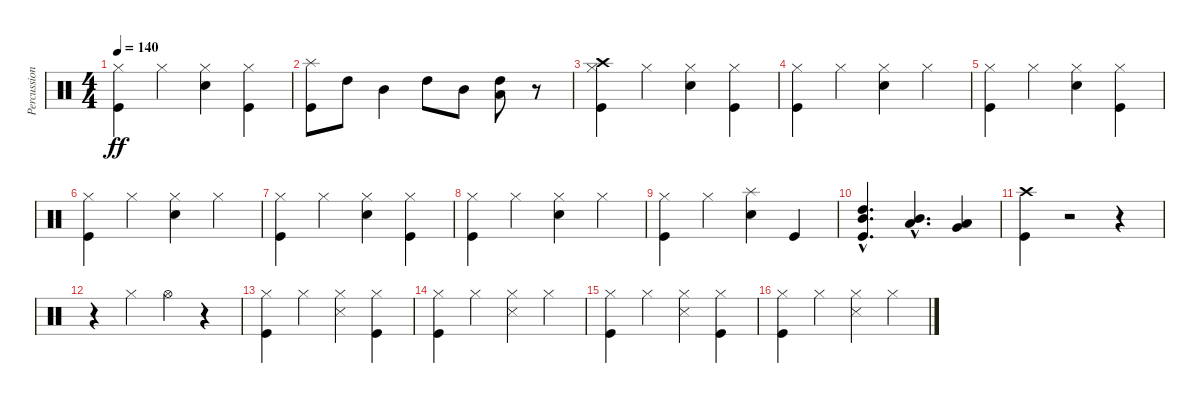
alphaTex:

\track ("Percussions" "Percussion") {instrument percussion}
\staff {score}
\articulation defaults
\ts (4 4)
\tempo 140
\clef neutral
\ks c
("Kick (hit)" "Hi-Hat (closed)").4{dy ff} "Hi-Hat (closed)".4 ("Snare (hit) 2" "Hi-Hat (closed)").4 ("Kick (hit)" "Hi-Hat (closed)").4 |
("Kick (hit)" "Splash (hit)").8 "High Tom (hit)".8 "Mid Tom (hit)".4 "High Tom (hit)".8 "Mid Tom (hit)".8 ("Low Tom (hit)" "High Tom (hit)").8 r.8 |
("Kick (hit)" "Hi-Hat (closed)" "Crash high (hit)").4 "Hi-Hat (closed)".4 ("Snare (hit) 2" "Hi-Hat (closed)").4 ("Kick (hit)" "Hi-Hat (closed)").4 |
("Kick (hit)" "Hi-Hat (closed)").4 "Hi-Hat (closed)".4 ("Snare (hit) 2" "Hi-Hat (closed)").4 "Hi-Hat (closed)".4 |
("Kick (hit)" "Hi-Hat (closed)").4 "Hi-Hat (closed)".4 ("Snare (hit) 2" "Hi-Hat (closed)").4 ("Kick (hit)" "Hi-Hat (closed)").4 |
("Kick (hit)" "Hi-Hat (closed)").4 "Hi-Hat (closed)".4 ("Snare (hit) 2" "Hi-Hat (closed)").4 "Hi-Hat (closed)".4 |
("Kick (hit)" "Hi-Hat (closed)").4 "Hi-Hat (closed)".4 ("Snare (hit) 2" "Hi-Hat (closed)").4 ("Kick (hit)" "Hi-Hat (closed)").4 |
("Kick (hit)" "Hi-Hat (closed)").4 "Hi-Hat (closed)".4 ("Snare (hit) 2" "Hi-Hat (closed)").4 "Hi-Hat (closed)".4 |
("Kick (hit)" "Hi-Hat (closed)").4 "Hi-Hat (closed)".4 ("Snare (hit) 2" "Splash (hit)").4 "Kick (hit)".4 |
("Kick (hit)"{hac} "Mid Tom (hit)"{hac} "High Tom (hit)"{hac}).4{d} ("Low Tom (hit)"{hac} "Mid Tom (hit)"{hac}).4{d} ("Low Floor Tom (hit)" "Very Low Tom (hit)").4 |
("Kick (hit)" "Crash high (hit)").4 r.2 r.4 |
r.4 "Hi-Hat (closed)".4 "Hi-Hat (open)".4 r.4 |
("Kick (hit)" "Hi-Hat (closed)").4 "Hi-Hat (closed)".4 ("Snare (side stick) 3" "Hi-Hat (closed)").4 ("Kick (hit)" "Hi-Hat (closed)").4 |
("Kick (hit)" "Hi-Hat (closed)").4 "Hi-Hat (closed)".4 ("Snare (side stick) 3" "Hi-Hat (closed)").4 "Hi-Hat (closed)".4 |
("Kick (hit)" "Hi-Hat (closed)").4 "Hi-Hat (closed)".4 ("Snare (side stick) 3" "Hi-Hat (closed)").4 ("Kick (hit)" "Hi-Hat (closed)").4 |
("Kick (hit)" "Hi-Hat (closed)").4 "Hi-Hat (closed)".4 ("Snare (side stick) 3" "Hi-Hat (closed)").4 "Hi-Hat (closed)".4
